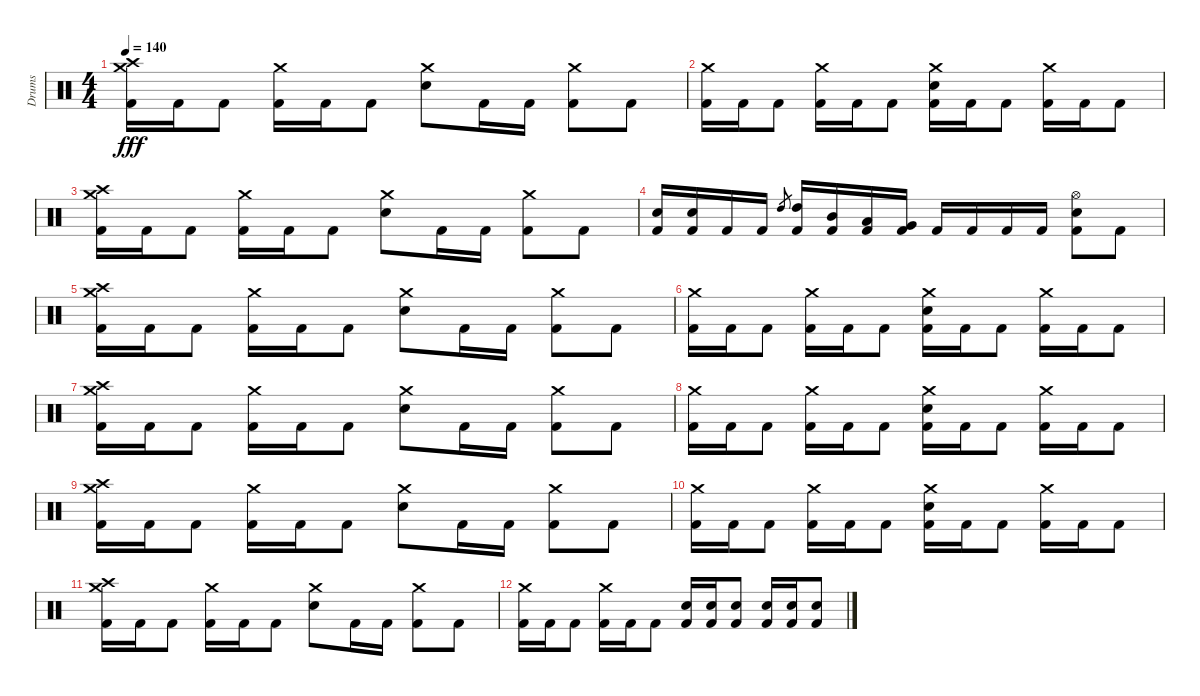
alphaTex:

\track ("Drums" "Drums") {instrument percussion}
\staff {score}
\articulation defaults
\ts (4 4)
\tempo 140
\clef neutral
\ks c
("Crash medium (hit)" "Crash high (hit)" "Kick (hit) 2").16{dy fff} "Kick (hit) 2".16 "Kick (hit) 2".8 ("Crash medium (hit)" "Kick (hit) 2").16 "Kick (hit) 2".16 "Kick (hit) 2".8 ("Crash medium (hit)" "Electric Snare (hit)").8 "Kick (hit) 2".16 "Kick (hit) 2".16 ("Crash medium (hit)" "Kick (hit) 2").8 "Kick (hit) 2".8 |
("Crash medium (hit)" "Kick (hit) 2").16 "Kick (hit) 2".16 "Kick (hit) 2".8 ("Crash medium (hit)" "Kick (hit) 2").16 "Kick (hit) 2".16 "Kick (hit) 2".8 ("Crash medium (hit)" "Electric Snare (hit)" "Kick (hit) 2").16 "Kick (hit) 2".16 "Kick (hit) 2".8 ("Crash medium (hit)" "Kick (hit) 2").16 "Kick (hit) 2".16 "Kick (hit) 2".8 |
("Crash medium (hit)" "Crash high (hit)" "Kick (hit) 2").16 "Kick (hit) 2".16 "Kick (hit) 2".8 ("Crash medium (hit)" "Kick (hit) 2").16 "Kick (hit) 2".16 "Kick (hit) 2".8 ("Crash medium (hit)" "Electric Snare (hit)").8 "Kick (hit) 2".16 "Kick (hit) 2".16 ("Crash medium (hit)" "Kick (hit) 2").8 "Kick (hit) 2".8 |
("Electric Snare (hit)" "Kick (hit) 2").16 ("Electric Snare (hit)" "Kick (hit) 2").16 "Kick (hit) 2".16 "Kick (hit) 2".16 "High Tom (hit)".8{gr} ("High Tom (hit)" "Kick (hit) 2").16 ("Mid Tom (hit)" "Kick (hit) 2").16 ("Low Tom (hit)" "Kick (hit) 2").16 ("Very Low Tom (hit)" "Kick (hit) 2").16 "Kick (hit) 2".16 "Kick (hit) 2".16 "Kick (hit) 2".16 "Kick (hit) 2".16 ("Hi-Hat (open)" "Electric Snare (hit)" "Kick (hit) 2").8 "Kick (hit) 2".8 |
("Crash medium (hit)" "Crash high (hit)" "Kick (hit) 2").16 "Kick (hit) 2".16 "Kick (hit) 2".8 ("Crash medium (hit)" "Kick (hit) 2").16 "Kick (hit) 2".16 "Kick (hit) 2".8 ("Crash medium (hit)" "Electric Snare (hit)").8 "Kick (hit) 2".16 "Kick (hit) 2".16 ("Crash medium (hit)" "Kick (hit) 2").8 "Kick (hit) 2".8 |
("Crash medium (hit)" "Kick (hit) 2").16 "Kick (hit) 2".16 "Kick (hit) 2".8 ("Crash medium (hit)" "Kick (hit) 2").16 "Kick (hit) 2".16 "Kick (hit) 2".8 ("Crash medium (hit)" "Electric Snare (hit)" "Kick (hit) 2").16 "Kick (hit) 2".16 "Kick (hit) 2".8 ("Crash medium (hit)" "Kick (hit) 2").16 "Kick (hit) 2".16 "Kick (hit) 2".8 |
("Crash medium (hit)" "Crash high (hit)" "Kick (hit) 2").16 "Kick (hit) 2".16 "Kick (hit) 2".8 ("Crash medium (hit)" "Kick (hit) 2").16 "Kick (hit) 2".16 "Kick (hit) 2".8 ("Crash medium (hit)" "Electric Snare (hit)").8 "Kick (hit) 2".16 "Kick (hit) 2".16 ("Crash medium (hit)" "Kick (hit) 2").8 "Kick (hit) 2".8 |
("Crash medium (hit)" "Kick (hit) 2").16 "Kick (hit) 2".16 "Kick (hit) 2".8 ("Crash medium (hit)" "Kick (hit) 2").16 "Kick (hit) 2".16 "Kick (hit) 2".8 ("Crash medium (hit)" "Electric Snare (hit)" "Kick (hit) 2").16 "Kick (hit) 2".16 "Kick (hit) 2".8 ("Crash medium (hit)" "Kick (hit) 2").16 "Kick (hit) 2".16 "Kick (hit) 2".8 |
("Crash medium (hit)" "Crash high (hit)" "Kick (hit) 2").16 "Kick (hit) 2".16 "Kick (hit) 2".8 ("Crash medium (hit)" "Kick (hit) 2").16 "Kick (hit) 2".16 "Kick (hit) 2".8 ("Crash medium (hit)" "Electric Snare (hit)").8 "Kick (hit) 2".16 "Kick (hit) 2".16 ("Crash medium (hit)" "Kick (hit) 2").8 "Kick (hit) 2".8 |
("Crash medium (hit)" "Kick (hit) 2").16 "Kick (hit) 2".16 "Kick (hit) 2".8 ("Crash medium (hit)" "Kick (hit) 2").16 "Kick (hit) 2".16 "Kick (hit) 2".8 ("Crash medium (hit)" "Electric Snare (hit)" "Kick (hit) 2").16 "Kick (hit) 2".16 "Kick (hit) 2".8 ("Crash medium (hit)" "Kick (hit) 2").16 "Kick (hit) 2".16 "Kick (hit) 2".8 |
("Crash medium (hit)" "Crash high (hit)" "Kick (hit) 2").16 "Kick (hit) 2".16 "Kick (hit) 2".8 ("Crash medium (hit)" "Kick (hit) 2").16 "Kick (hit) 2".16 "Kick (hit) 2".8 ("Crash medium (hit)" "Electric Snare (hit)").8 "Kick (hit) 2".16 "Kick (hit) 2".16 ("Crash medium (hit)" "Kick (hit) 2").8 "Kick (hit) 2".8 |
("Crash medium (hit)" "Kick (hit) 2").16 "Kick (hit) 2".16 "Kick (hit) 2".8 ("Crash medium (hit)" "Kick (hit) 2").16 "Kick (hit) 2".16 "Kick (hit) 2".8 ("Electric Snare (hit)" "Kick (hit) 2").16 ("Electric Snare (hit)" "Kick (hit) 2").16 ("Electric Snare (hit)" "Kick (hit) 2").8 ("Electric Snare (hit)" "Kick (hit) 2").16 ("Electric Snare (hit)" "Kick (hit) 2").16 ("Electric Snare (hit)" "Kick (hit) 2").8
